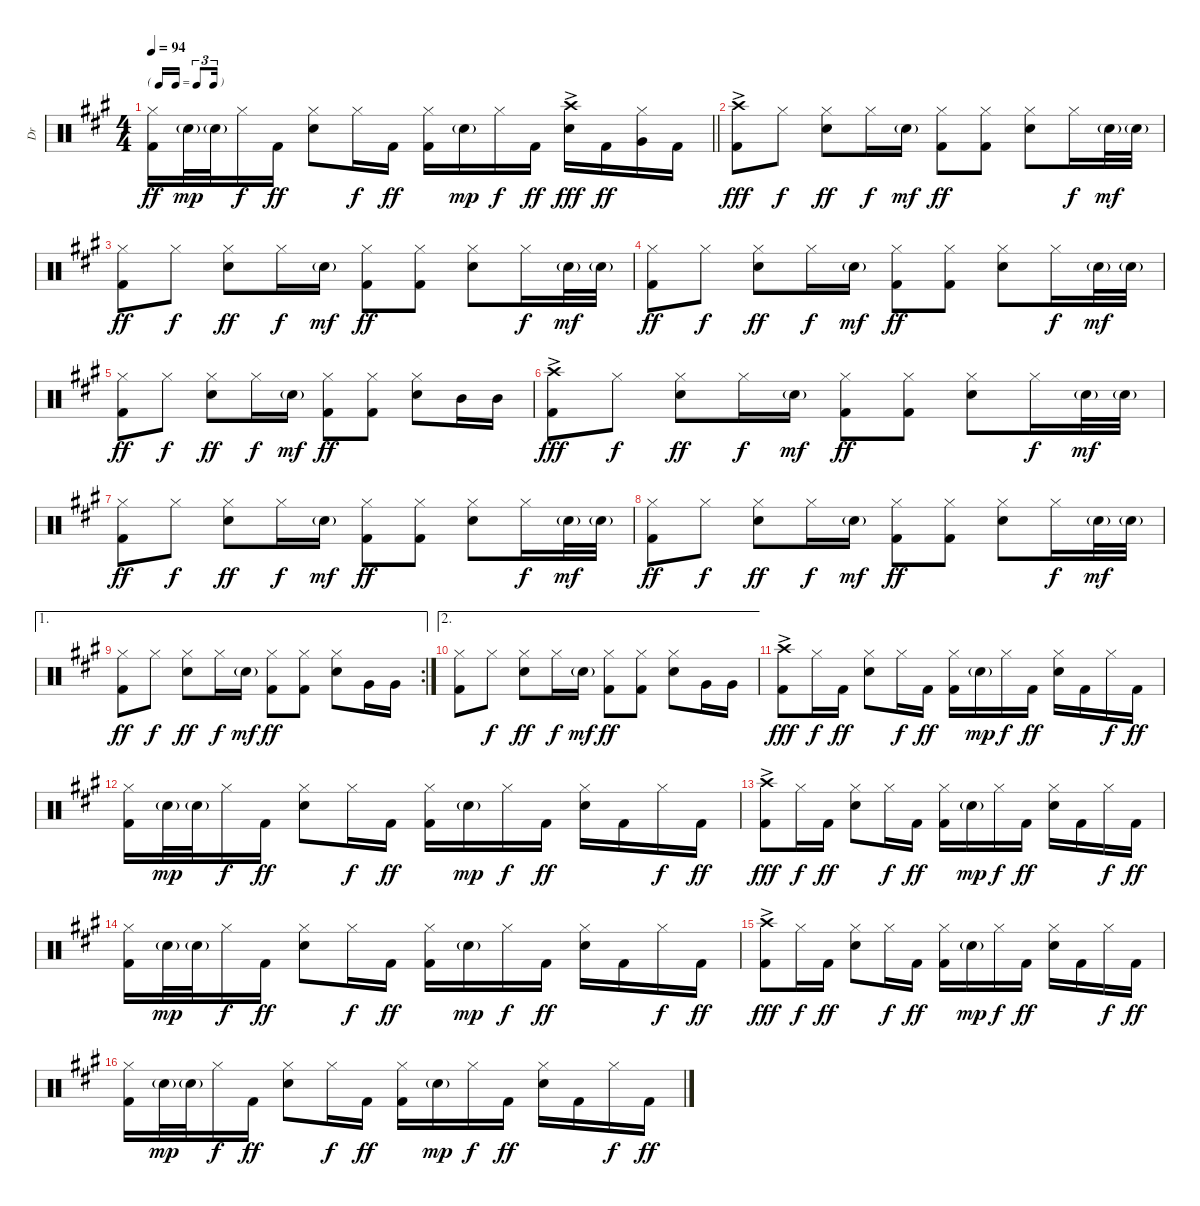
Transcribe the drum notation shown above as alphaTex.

\track ("Dr" "Dr") {instrument percussion}
\staff {score}
\articulation defaults
\ts (4 4)
\tf triplet16th
\tempo 94
\clef neutral
\barLineRight lightlight
\ks a
("Hi-Hat (closed)" "Kick (hit) 2").16{dy ff} "Electric Snare (hit)"{g}.32{dy mp} "Electric Snare (hit)"{g}.32 "Hi-Hat (closed)".16{dy f} "Kick (hit) 2".16{dy ff} ("Hi-Hat (closed)" "Electric Snare (hit)").8 "Hi-Hat (closed)".16{dy f} "Kick (hit) 2".16{dy ff} ("Hi-Hat (closed)" "Kick (hit) 2").16 "Electric Snare (hit)"{g}.16{dy mp} "Hi-Hat (closed)".16{dy f} "Kick (hit) 2".16{dy ff} ("Crash high (hit)"{ac} "Electric Snare (hit)"{ac}).16{dy fff} "Kick (hit) 2".16{dy ff} ("Hi-Hat (closed)" "Very Low Tom (hit)").16 "Kick (hit) 2".16 |
("Crash high (hit)"{ac} "Kick (hit) 2"{ac}).8{dy fff} "Hi-Hat (closed)".8{dy f} ("Hi-Hat (closed)" "Electric Snare (hit)").8{dy ff} "Hi-Hat (closed)".16{dy f} "Electric Snare (hit)"{g}.16{dy mf} ("Hi-Hat (closed)" "Kick (hit) 2").8{dy ff} ("Hi-Hat (closed)" "Kick (hit) 2").8 ("Hi-Hat (closed)" "Electric Snare (hit)").8 "Hi-Hat (closed)".16{dy f} "Electric Snare (hit)"{g}.32{dy mf} "Electric Snare (hit)"{g}.32 |
("Hi-Hat (closed)" "Kick (hit) 2").8{dy ff} "Hi-Hat (closed)".8{dy f} ("Hi-Hat (closed)" "Electric Snare (hit)").8{dy ff} "Hi-Hat (closed)".16{dy f} "Electric Snare (hit)"{g}.16{dy mf} ("Hi-Hat (closed)" "Kick (hit) 2").8{dy ff} ("Hi-Hat (closed)" "Kick (hit) 2").8 ("Hi-Hat (closed)" "Electric Snare (hit)").8 "Hi-Hat (closed)".16{dy f} "Electric Snare (hit)"{g}.32{dy mf} "Electric Snare (hit)"{g}.32 |
("Hi-Hat (closed)" "Kick (hit) 2").8{dy ff} "Hi-Hat (closed)".8{dy f} ("Hi-Hat (closed)" "Electric Snare (hit)").8{dy ff} "Hi-Hat (closed)".16{dy f} "Electric Snare (hit)"{g}.16{dy mf} ("Hi-Hat (closed)" "Kick (hit) 2").8{dy ff} ("Hi-Hat (closed)" "Kick (hit) 2").8 ("Hi-Hat (closed)" "Electric Snare (hit)").8 "Hi-Hat (closed)".16{dy f} "Electric Snare (hit)"{g}.32{dy mf} "Electric Snare (hit)"{g}.32 |
("Hi-Hat (closed)" "Kick (hit) 2").8{dy ff} "Hi-Hat (closed)".8{dy f} ("Hi-Hat (closed)" "Electric Snare (hit)").8{dy ff} "Hi-Hat (closed)".16{dy f} "Electric Snare (hit)"{g}.16{dy mf} ("Hi-Hat (closed)" "Kick (hit) 2").8{dy ff} ("Hi-Hat (closed)" "Kick (hit) 2").8 ("Hi-Hat (closed)" "Electric Snare (hit)").8 "Mid Tom (hit)".16 "Mid Tom (hit)".16 |
("Crash high (hit)"{ac} "Kick (hit) 2"{ac}).8{dy fff} "Hi-Hat (closed)".8{dy f} ("Hi-Hat (closed)" "Electric Snare (hit)").8{dy ff} "Hi-Hat (closed)".16{dy f} "Electric Snare (hit)"{g}.16{dy mf} ("Hi-Hat (closed)" "Kick (hit) 2").8{dy ff} ("Hi-Hat (closed)" "Kick (hit) 2").8 ("Hi-Hat (closed)" "Electric Snare (hit)").8 "Hi-Hat (closed)".16{dy f} "Electric Snare (hit)"{g}.32{dy mf} "Electric Snare (hit)"{g}.32 |
("Hi-Hat (closed)" "Kick (hit) 2").8{dy ff} "Hi-Hat (closed)".8{dy f} ("Hi-Hat (closed)" "Electric Snare (hit)").8{dy ff} "Hi-Hat (closed)".16{dy f} "Electric Snare (hit)"{g}.16{dy mf} ("Hi-Hat (closed)" "Kick (hit) 2").8{dy ff} ("Hi-Hat (closed)" "Kick (hit) 2").8 ("Hi-Hat (closed)" "Electric Snare (hit)").8 "Hi-Hat (closed)".16{dy f} "Electric Snare (hit)"{g}.32{dy mf} "Electric Snare (hit)"{g}.32 |
("Hi-Hat (closed)" "Kick (hit) 2").8{dy ff} "Hi-Hat (closed)".8{dy f} ("Hi-Hat (closed)" "Electric Snare (hit)").8{dy ff} "Hi-Hat (closed)".16{dy f} "Electric Snare (hit)"{g}.16{dy mf} ("Hi-Hat (closed)" "Kick (hit) 2").8{dy ff} ("Hi-Hat (closed)" "Kick (hit) 2").8 ("Hi-Hat (closed)" "Electric Snare (hit)").8 "Hi-Hat (closed)".16{dy f} "Electric Snare (hit)"{g}.32{dy mf} "Electric Snare (hit)"{g}.32 |
\ae 1
\rc 2
("Hi-Hat (closed)" "Kick (hit) 2").8{dy ff} "Hi-Hat (closed)".8{dy f} ("Hi-Hat (closed)" "Electric Snare (hit)").8{dy ff} "Hi-Hat (closed)".16{dy f} "Electric Snare (hit)"{g}.16{dy mf} ("Hi-Hat (closed)" "Kick (hit) 2").8{dy ff} ("Hi-Hat (closed)" "Kick (hit) 2").8 ("Hi-Hat (closed)" "Electric Snare (hit)").8 "Very Low Tom (hit)".16 "Very Low Tom (hit)".16 |
\ae 2
("Hi-Hat (closed)" "Kick (hit) 2").8 "Hi-Hat (closed)".8{dy f} ("Hi-Hat (closed)" "Electric Snare (hit)").8{dy ff} "Hi-Hat (closed)".16{dy f} "Electric Snare (hit)"{g}.16{dy mf} ("Hi-Hat (closed)" "Kick (hit) 2").8{dy ff} ("Hi-Hat (closed)" "Kick (hit) 2").8 ("Hi-Hat (closed)" "Electric Snare (hit)").8 "Very Low Tom (hit)".16 "Very Low Tom (hit)".16 |
("Crash high (hit)"{ac} "Kick (hit) 2"{ac}).8{dy fff} "Hi-Hat (closed)".16{dy f} "Kick (hit) 2".16{dy ff} ("Hi-Hat (closed)" "Electric Snare (hit)").8 "Hi-Hat (closed)".16{dy f} "Kick (hit) 2".16{dy ff} ("Hi-Hat (closed)" "Kick (hit) 2").16 "Electric Snare (hit)"{g}.16{dy mp} "Hi-Hat (closed)".16{dy f} "Kick (hit) 2".16{dy ff} ("Hi-Hat (closed)" "Electric Snare (hit)").16 "Kick (hit) 2".16 "Hi-Hat (closed)".16{dy f} "Kick (hit) 2".16{dy ff} |
("Hi-Hat (closed)" "Kick (hit) 2").16 "Electric Snare (hit)"{g}.32{dy mp} "Electric Snare (hit)"{g}.32 "Hi-Hat (closed)".16{dy f} "Kick (hit) 2".16{dy ff} ("Hi-Hat (closed)" "Electric Snare (hit)").8 "Hi-Hat (closed)".16{dy f} "Kick (hit) 2".16{dy ff} ("Hi-Hat (closed)" "Kick (hit) 2").16 "Electric Snare (hit)"{g}.16{dy mp} "Hi-Hat (closed)".16{dy f} "Kick (hit) 2".16{dy ff} ("Hi-Hat (closed)" "Electric Snare (hit)").16 "Kick (hit) 2".16 "Hi-Hat (closed)".16{dy f} "Kick (hit) 2".16{dy ff} |
("Crash high (hit)"{ac} "Kick (hit) 2"{ac}).8{dy fff} "Hi-Hat (closed)".16{dy f} "Kick (hit) 2".16{dy ff} ("Hi-Hat (closed)" "Electric Snare (hit)").8 "Hi-Hat (closed)".16{dy f} "Kick (hit) 2".16{dy ff} ("Hi-Hat (closed)" "Kick (hit) 2").16 "Electric Snare (hit)"{g}.16{dy mp} "Hi-Hat (closed)".16{dy f} "Kick (hit) 2".16{dy ff} ("Hi-Hat (closed)" "Electric Snare (hit)").16 "Kick (hit) 2".16 "Hi-Hat (closed)".16{dy f} "Kick (hit) 2".16{dy ff} |
("Hi-Hat (closed)" "Kick (hit) 2").16 "Electric Snare (hit)"{g}.32{dy mp} "Electric Snare (hit)"{g}.32 "Hi-Hat (closed)".16{dy f} "Kick (hit) 2".16{dy ff} ("Hi-Hat (closed)" "Electric Snare (hit)").8 "Hi-Hat (closed)".16{dy f} "Kick (hit) 2".16{dy ff} ("Hi-Hat (closed)" "Kick (hit) 2").16 "Electric Snare (hit)"{g}.16{dy mp} "Hi-Hat (closed)".16{dy f} "Kick (hit) 2".16{dy ff} ("Hi-Hat (closed)" "Electric Snare (hit)").16 "Kick (hit) 2".16 "Hi-Hat (closed)".16{dy f} "Kick (hit) 2".16{dy ff} |
("Crash high (hit)"{ac} "Kick (hit) 2"{ac}).8{dy fff} "Hi-Hat (closed)".16{dy f} "Kick (hit) 2".16{dy ff} ("Hi-Hat (closed)" "Electric Snare (hit)").8 "Hi-Hat (closed)".16{dy f} "Kick (hit) 2".16{dy ff} ("Hi-Hat (closed)" "Kick (hit) 2").16 "Electric Snare (hit)"{g}.16{dy mp} "Hi-Hat (closed)".16{dy f} "Kick (hit) 2".16{dy ff} ("Hi-Hat (closed)" "Electric Snare (hit)").16 "Kick (hit) 2".16 "Hi-Hat (closed)".16{dy f} "Kick (hit) 2".16{dy ff} |
("Hi-Hat (closed)" "Kick (hit) 2").16 "Electric Snare (hit)"{g}.32{dy mp} "Electric Snare (hit)"{g}.32 "Hi-Hat (closed)".16{dy f} "Kick (hit) 2".16{dy ff} ("Hi-Hat (closed)" "Electric Snare (hit)").8 "Hi-Hat (closed)".16{dy f} "Kick (hit) 2".16{dy ff} ("Hi-Hat (closed)" "Kick (hit) 2").16 "Electric Snare (hit)"{g}.16{dy mp} "Hi-Hat (closed)".16{dy f} "Kick (hit) 2".16{dy ff} ("Hi-Hat (closed)" "Electric Snare (hit)").16 "Kick (hit) 2".16 "Hi-Hat (closed)".16{dy f} "Kick (hit) 2".16{dy ff}
